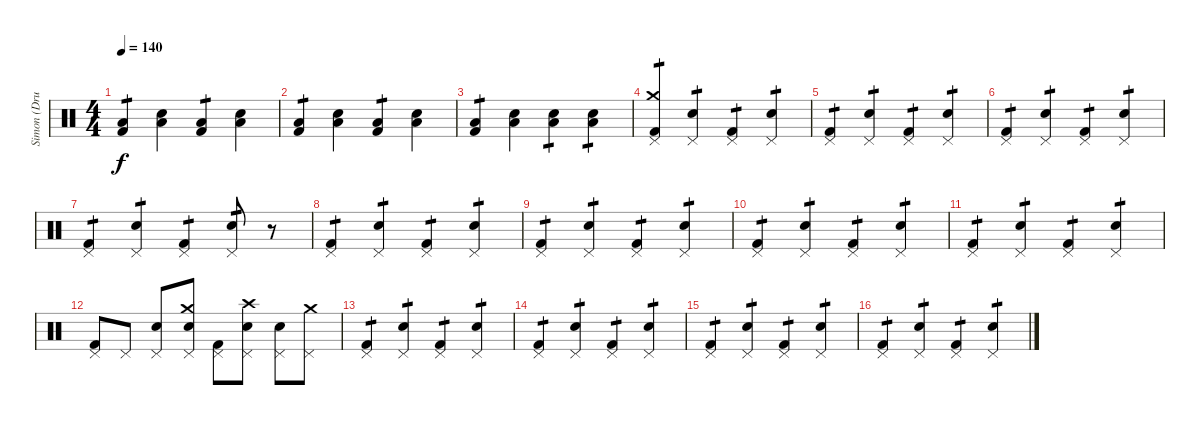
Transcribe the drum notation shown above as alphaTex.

\track ("Simon (Drums)" "Simon (Dru") {instrument percussion}
\staff {score}
\articulation defaults
\ts (4 4)
\tempo 140
\clef neutral
\ks c
("Kick (hit) 2" "Low Floor Tom (hit)").4{tp 1 dy f} ("Snare (hit) 2" "Low Floor Tom (hit)").4 ("Kick (hit) 2" "Low Floor Tom (hit)").4{tp 1} ("Snare (hit) 2" "Low Floor Tom (hit)").4 |
("Kick (hit) 2" "Low Floor Tom (hit)").4{tp 1} ("Snare (hit) 2" "Low Floor Tom (hit)").4 ("Kick (hit) 2" "Low Floor Tom (hit)").4{tp 1} ("Snare (hit) 2" "Low Floor Tom (hit)").4 |
("Kick (hit) 2" "Low Floor Tom (hit)").4{tp 1} ("Snare (hit) 2" "Low Floor Tom (hit)").4 ("Snare (hit) 2" "Low Floor Tom (hit)").4{tp 1} ("Snare (hit) 2" "Low Floor Tom (hit)").4{tp 1} |
("Kick (hit) 2" "Crash medium (hit)" "Pedal Hi-Hat (hit)").4{tp 1} ("Snare (hit) 2" "Pedal Hi-Hat (hit)").4{tp 1} ("Kick (hit) 2" "Pedal Hi-Hat (hit)").4{tp 1} ("Snare (hit) 2" "Pedal Hi-Hat (hit)").4{tp 1} |
("Kick (hit) 2" "Pedal Hi-Hat (hit)").4{tp 1} ("Snare (hit) 2" "Pedal Hi-Hat (hit)").4{tp 1} ("Kick (hit) 2" "Pedal Hi-Hat (hit)").4{tp 1} ("Snare (hit) 2" "Pedal Hi-Hat (hit)").4{tp 1} |
("Kick (hit) 2" "Pedal Hi-Hat (hit)").4{tp 1} ("Snare (hit) 2" "Pedal Hi-Hat (hit)").4{tp 1} ("Kick (hit) 2" "Pedal Hi-Hat (hit)").4{tp 1} ("Snare (hit) 2" "Pedal Hi-Hat (hit)").4{tp 1} |
("Kick (hit) 2" "Pedal Hi-Hat (hit)").4{tp 1} ("Snare (hit) 2" "Pedal Hi-Hat (hit)").4{tp 1} ("Kick (hit) 2" "Pedal Hi-Hat (hit)").4{tp 1} ("Snare (hit) 2" "Pedal Hi-Hat (hit)").8{tp 1} r.8 |
("Kick (hit) 2" "Pedal Hi-Hat (hit)").4{tp 1} ("Snare (hit) 2" "Pedal Hi-Hat (hit)").4{tp 1} ("Kick (hit) 2" "Pedal Hi-Hat (hit)").4{tp 1} ("Snare (hit) 2" "Pedal Hi-Hat (hit)").4{tp 1} |
("Kick (hit) 2" "Pedal Hi-Hat (hit)").4{tp 1} ("Snare (hit) 2" "Pedal Hi-Hat (hit)").4{tp 1} ("Kick (hit) 2" "Pedal Hi-Hat (hit)").4{tp 1} ("Snare (hit) 2" "Pedal Hi-Hat (hit)").4{tp 1} |
("Kick (hit) 2" "Pedal Hi-Hat (hit)").4{tp 1} ("Snare (hit) 2" "Pedal Hi-Hat (hit)").4{tp 1} ("Kick (hit) 2" "Pedal Hi-Hat (hit)").4{tp 1} ("Snare (hit) 2" "Pedal Hi-Hat (hit)").4{tp 1} |
("Kick (hit) 2" "Pedal Hi-Hat (hit)").4{tp 1} ("Snare (hit) 2" "Pedal Hi-Hat (hit)").4{tp 1} ("Kick (hit) 2" "Pedal Hi-Hat (hit)").4{tp 1} ("Snare (hit) 2" "Pedal Hi-Hat (hit)").4{tp 1} |
("Kick (hit) 2" "Pedal Hi-Hat (hit)").8 "Pedal Hi-Hat (hit)".8 ("Snare (hit) 2" "Pedal Hi-Hat (hit)").8 ("Snare (hit) 2" "Crash medium (hit)" "Pedal Hi-Hat (hit)").8 ("Kick (hit) 2" "Pedal Hi-Hat (hit)").8 ("Snare (hit) 2" "Crash high (hit)" "Pedal Hi-Hat (hit)").8 ("Snare (hit) 2" "Pedal Hi-Hat (hit)").8 ("Crash medium (hit)" "Pedal Hi-Hat (hit)").8 |
("Kick (hit) 2" "Pedal Hi-Hat (hit)").4{tp 1} ("Snare (hit) 2" "Pedal Hi-Hat (hit)").4{tp 1} ("Kick (hit) 2" "Pedal Hi-Hat (hit)").4{tp 1} ("Snare (hit) 2" "Pedal Hi-Hat (hit)").4{tp 1} |
("Kick (hit) 2" "Pedal Hi-Hat (hit)").4{tp 1} ("Snare (hit) 2" "Pedal Hi-Hat (hit)").4{tp 1} ("Kick (hit) 2" "Pedal Hi-Hat (hit)").4{tp 1} ("Snare (hit) 2" "Pedal Hi-Hat (hit)").4{tp 1} |
("Kick (hit) 2" "Pedal Hi-Hat (hit)").4{tp 1} ("Snare (hit) 2" "Pedal Hi-Hat (hit)").4{tp 1} ("Kick (hit) 2" "Pedal Hi-Hat (hit)").4{tp 1} ("Snare (hit) 2" "Pedal Hi-Hat (hit)").4{tp 1} |
("Kick (hit) 2" "Pedal Hi-Hat (hit)").4{tp 1} ("Snare (hit) 2" "Pedal Hi-Hat (hit)").4{tp 1} ("Kick (hit) 2" "Pedal Hi-Hat (hit)").4{tp 1} ("Snare (hit) 2" "Pedal Hi-Hat (hit)").4{tp 1}
